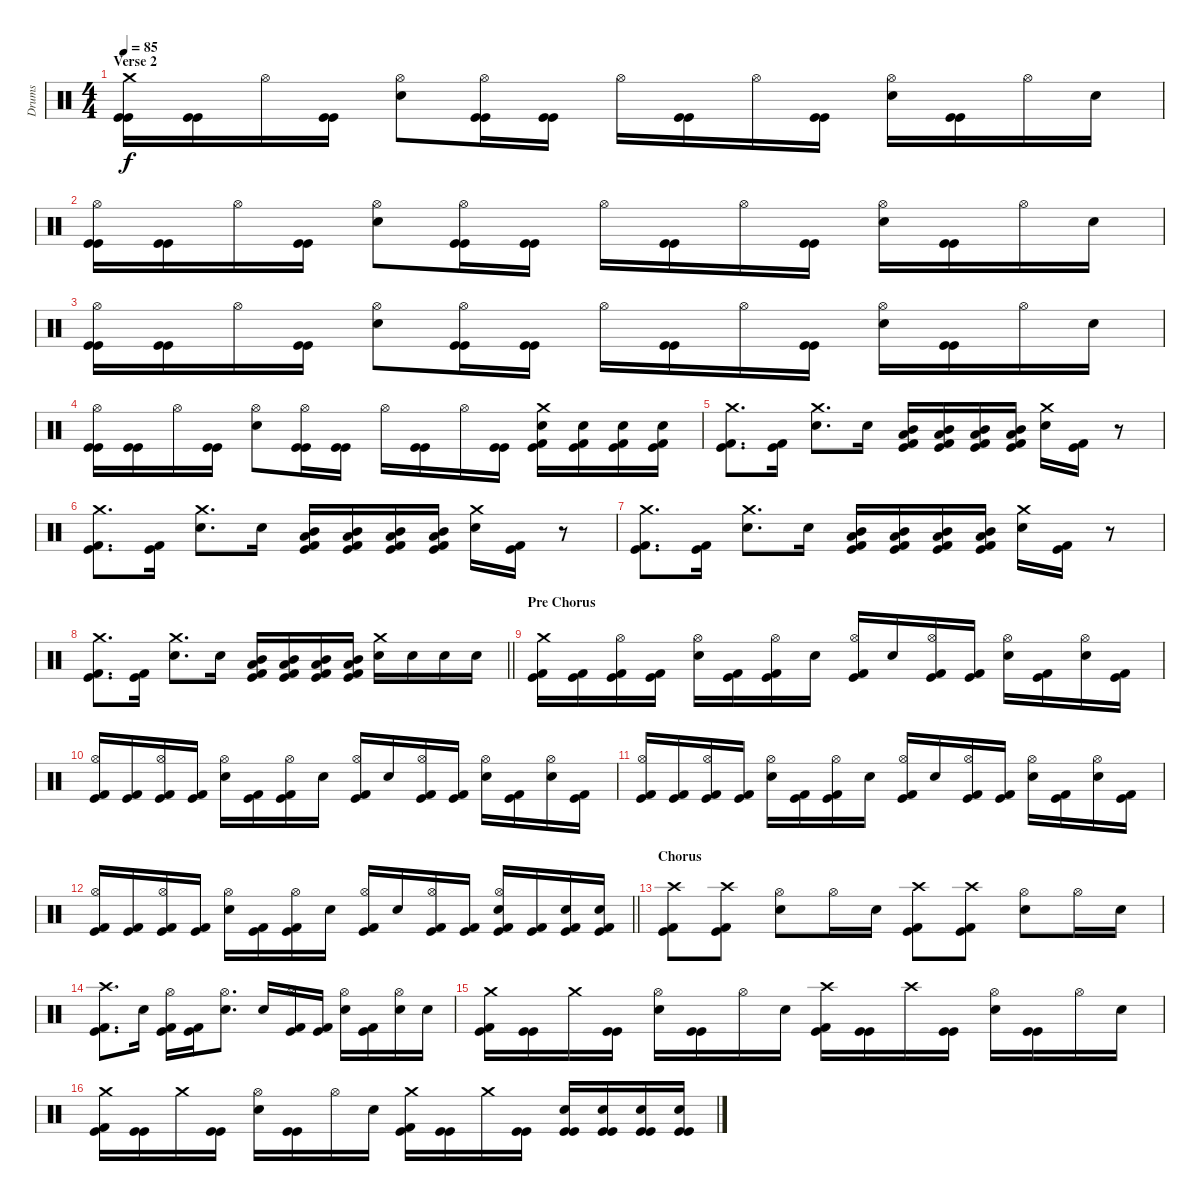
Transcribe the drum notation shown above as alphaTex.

\track ("Drums" "Drums") {instrument percussion}
\staff {score}
\articulation defaults
\ts (4 4)
\section ("" "Verse 2")
\tempo 85
\clef neutral
\ks c
("Crash medium (hit)" "Kick (hit)" "Kick (hit)").16{dy f} ("Kick (hit)" "Kick (hit)").16 "Hi-Hat (open)".16 ("Kick (hit)" "Kick (hit)").16 ("Electric Snare (hit)" "Hi-Hat (open)").8 ("Hi-Hat (open)" "Kick (hit)" "Kick (hit)").16 ("Kick (hit)" "Kick (hit)").16 "Hi-Hat (open)".16 ("Kick (hit)" "Kick (hit)").16 "Hi-Hat (open)".16 ("Kick (hit)" "Kick (hit)").16 ("Electric Snare (hit)" "Hi-Hat (open)").16 ("Kick (hit)" "Kick (hit)").16 "Hi-Hat (open)".16 "Electric Snare (hit)".16 |
("Hi-Hat (open)" "Kick (hit)" "Kick (hit)").16 ("Kick (hit)" "Kick (hit)").16 "Hi-Hat (open)".16 ("Kick (hit)" "Kick (hit)").16 ("Electric Snare (hit)" "Hi-Hat (open)").8 ("Hi-Hat (open)" "Kick (hit)" "Kick (hit)").16 ("Kick (hit)" "Kick (hit)").16 "Hi-Hat (open)".16 ("Kick (hit)" "Kick (hit)").16 "Hi-Hat (open)".16 ("Kick (hit)" "Kick (hit)").16 ("Electric Snare (hit)" "Hi-Hat (open)").16 ("Kick (hit)" "Kick (hit)").16 "Hi-Hat (open)".16 "Electric Snare (hit)".16 |
("Hi-Hat (open)" "Kick (hit)" "Kick (hit)").16 ("Kick (hit)" "Kick (hit)").16 "Hi-Hat (open)".16 ("Kick (hit)" "Kick (hit)").16 ("Electric Snare (hit)" "Hi-Hat (open)").8 ("Hi-Hat (open)" "Kick (hit)" "Kick (hit)").16 ("Kick (hit)" "Kick (hit)").16 "Hi-Hat (open)".16 ("Kick (hit)" "Kick (hit)").16 "Hi-Hat (open)".16 ("Kick (hit)" "Kick (hit)").16 ("Electric Snare (hit)" "Hi-Hat (open)").16 ("Kick (hit)" "Kick (hit)").16 "Hi-Hat (open)".16 "Electric Snare (hit)".16 |
("Hi-Hat (open)" "Kick (hit)" "Kick (hit)").16 ("Kick (hit)" "Kick (hit)").16 "Hi-Hat (open)".16 ("Kick (hit)" "Kick (hit)").16 ("Electric Snare (hit)" "Hi-Hat (open)").8 ("Hi-Hat (open)" "Kick (hit)" "Kick (hit)").16 ("Kick (hit)" "Kick (hit)").16 "Hi-Hat (open)".16 ("Kick (hit)" "Kick (hit)").16 "Hi-Hat (open)".16 ("Kick (hit)" "Kick (hit)").16 ("Electric Snare (hit)" "Crash medium (hit)" "Kick (hit) 2" "Kick (hit)").16 ("Electric Snare (hit)" "Kick (hit) 2" "Kick (hit)").16 ("Electric Snare (hit)" "Kick (hit) 2" "Kick (hit)").16 ("Electric Snare (hit)" "Kick (hit) 2" "Kick (hit)").16 |
("Crash medium (hit)" "Kick (hit) 2" "Kick (hit)").8{d} ("Kick (hit)" "Kick (hit) 2").16 ("Electric Snare (hit)" "Crash medium (hit)").8{d} "Electric Snare (hit)".16 ("Mid Tom (hit)" "Low Tom (hit)" "Kick (hit) 2" "Kick (hit)").16 ("Mid Tom (hit)" "Low Tom (hit)" "Kick (hit) 2" "Kick (hit)").16 ("Mid Tom (hit)" "Low Tom (hit)" "Kick (hit) 2" "Kick (hit)").16 ("Mid Tom (hit)" "Low Tom (hit)" "Kick (hit) 2" "Kick (hit)").16 ("Electric Snare (hit)" "Crash medium (hit)").16 ("Kick (hit)" "Kick (hit) 2").16 r.8 |
("Crash medium (hit)" "Kick (hit) 2" "Kick (hit)").8{d} ("Kick (hit)" "Kick (hit) 2").16 ("Electric Snare (hit)" "Crash medium (hit)").8{d} "Electric Snare (hit)".16 ("Mid Tom (hit)" "Low Tom (hit)" "Kick (hit) 2" "Kick (hit)").16 ("Mid Tom (hit)" "Low Tom (hit)" "Kick (hit) 2" "Kick (hit)").16 ("Mid Tom (hit)" "Low Tom (hit)" "Kick (hit) 2" "Kick (hit)").16 ("Mid Tom (hit)" "Low Tom (hit)" "Kick (hit) 2" "Kick (hit)").16 ("Electric Snare (hit)" "Crash medium (hit)").16 ("Kick (hit)" "Kick (hit) 2").16 r.8 |
("Crash medium (hit)" "Kick (hit) 2" "Kick (hit)").8{d} ("Kick (hit)" "Kick (hit) 2").16 ("Electric Snare (hit)" "Crash medium (hit)").8{d} "Electric Snare (hit)".16 ("Mid Tom (hit)" "Low Tom (hit)" "Kick (hit) 2" "Kick (hit)").16 ("Mid Tom (hit)" "Low Tom (hit)" "Kick (hit) 2" "Kick (hit)").16 ("Mid Tom (hit)" "Low Tom (hit)" "Kick (hit) 2" "Kick (hit)").16 ("Mid Tom (hit)" "Low Tom (hit)" "Kick (hit) 2" "Kick (hit)").16 ("Electric Snare (hit)" "Crash medium (hit)").16 ("Kick (hit)" "Kick (hit) 2").16 r.8 |
\barLineRight lightlight
("Crash medium (hit)" "Kick (hit) 2" "Kick (hit)").8{d} ("Kick (hit)" "Kick (hit) 2").16 ("Electric Snare (hit)" "Crash medium (hit)").8{d} "Electric Snare (hit)".16 ("Mid Tom (hit)" "Low Tom (hit)" "Kick (hit) 2" "Kick (hit)").16 ("Mid Tom (hit)" "Low Tom (hit)" "Kick (hit) 2" "Kick (hit)").16 ("Mid Tom (hit)" "Low Tom (hit)" "Kick (hit) 2" "Kick (hit)").16 ("Mid Tom (hit)" "Low Tom (hit)" "Kick (hit) 2" "Kick (hit)").16 ("Electric Snare (hit)" "Crash medium (hit)").16 "Electric Snare (hit)".16 "Electric Snare (hit)".16 "Electric Snare (hit)".16 |
\section ("" "Pre Chorus")
("Crash medium (hit)" "Kick (hit) 2" "Kick (hit)").16 ("Kick (hit) 2" "Kick (hit)").16 ("Hi-Hat (open)" "Kick (hit) 2" "Kick (hit)").16 ("Kick (hit) 2" "Kick (hit)").16 ("Electric Snare (hit)" "Hi-Hat (open)").16 ("Kick (hit) 2" "Kick (hit)").16 ("Hi-Hat (open)" "Kick (hit) 2" "Kick (hit)").16 "Electric Snare (hit)".16 ("Hi-Hat (open)" "Kick (hit) 2" "Kick (hit)").16 "Electric Snare (hit)".16 ("Hi-Hat (open)" "Kick (hit) 2" "Kick (hit)").16 ("Kick (hit) 2" "Kick (hit)").16 ("Electric Snare (hit)" "Hi-Hat (open)").16 ("Kick (hit) 2" "Kick (hit)").16 ("Electric Snare (hit)" "Hi-Hat (open)").16 ("Kick (hit) 2" "Kick (hit)").16 |
("Hi-Hat (open)" "Kick (hit) 2" "Kick (hit)").16 ("Kick (hit) 2" "Kick (hit)").16 ("Hi-Hat (open)" "Kick (hit) 2" "Kick (hit)").16 ("Kick (hit) 2" "Kick (hit)").16 ("Electric Snare (hit)" "Hi-Hat (open)").16 ("Kick (hit) 2" "Kick (hit)").16 ("Hi-Hat (open)" "Kick (hit) 2" "Kick (hit)").16 "Electric Snare (hit)".16 ("Hi-Hat (open)" "Kick (hit) 2" "Kick (hit)").16 "Electric Snare (hit)".16 ("Hi-Hat (open)" "Kick (hit) 2" "Kick (hit)").16 ("Kick (hit) 2" "Kick (hit)").16 ("Electric Snare (hit)" "Hi-Hat (open)").16 ("Kick (hit) 2" "Kick (hit)").16 ("Electric Snare (hit)" "Hi-Hat (open)").16 ("Kick (hit) 2" "Kick (hit)").16 |
("Hi-Hat (open)" "Kick (hit) 2" "Kick (hit)").16 ("Kick (hit) 2" "Kick (hit)").16 ("Hi-Hat (open)" "Kick (hit) 2" "Kick (hit)").16 ("Kick (hit) 2" "Kick (hit)").16 ("Electric Snare (hit)" "Hi-Hat (open)").16 ("Kick (hit) 2" "Kick (hit)").16 ("Hi-Hat (open)" "Kick (hit) 2" "Kick (hit)").16 "Electric Snare (hit)".16 ("Hi-Hat (open)" "Kick (hit) 2" "Kick (hit)").16 "Electric Snare (hit)".16 ("Hi-Hat (open)" "Kick (hit) 2" "Kick (hit)").16 ("Kick (hit) 2" "Kick (hit)").16 ("Electric Snare (hit)" "Hi-Hat (open)").16 ("Kick (hit) 2" "Kick (hit)").16 ("Electric Snare (hit)" "Hi-Hat (open)").16 ("Kick (hit) 2" "Kick (hit)").16 |
\barLineRight lightlight
("Hi-Hat (open)" "Kick (hit) 2" "Kick (hit)").16 ("Kick (hit) 2" "Kick (hit)").16 ("Hi-Hat (open)" "Kick (hit) 2" "Kick (hit)").16 ("Kick (hit) 2" "Kick (hit)").16 ("Electric Snare (hit)" "Hi-Hat (open)").16 ("Kick (hit) 2" "Kick (hit)").16 ("Hi-Hat (open)" "Kick (hit) 2" "Kick (hit)").16 "Electric Snare (hit)".16 ("Hi-Hat (open)" "Kick (hit) 2" "Kick (hit)").16 "Electric Snare (hit)".16 ("Hi-Hat (open)" "Kick (hit) 2" "Kick (hit)").16 ("Kick (hit) 2" "Kick (hit)").16 ("Electric Snare (hit)" "Hi-Hat (open)" "Kick (hit)" "Kick (hit) 2").16 ("Kick (hit)" "Kick (hit) 2").16 ("Electric Snare (hit)" "Kick (hit)" "Kick (hit) 2").16 ("Electric Snare (hit)" "Kick (hit)" "Kick (hit) 2").16 |
\section ("" "Chorus")
("Crash high (hit)" "Kick (hit)" "Kick (hit) 2").8 ("Crash high (hit)" "Kick (hit)" "Kick (hit) 2").8 ("Electric Snare (hit)" "Hi-Hat (open)").8 "Hi-Hat (open)".16 "Electric Snare (hit)".16 ("Crash high (hit)" "Kick (hit)" "Kick (hit) 2").8 ("Crash high (hit)" "Kick (hit)" "Kick (hit) 2").8 ("Electric Snare (hit)" "Hi-Hat (open)").8 "Hi-Hat (open)".16 "Electric Snare (hit)".16 |
("Crash high (hit)" "Kick (hit)" "Kick (hit) 2").8{d} "Electric Snare (hit)".16 ("Hi-Hat (open)" "Kick (hit)" "Kick (hit) 2").16 ("Kick (hit)" "Kick (hit) 2").16 ("Electric Snare (hit)" "Hi-Hat (open)").8{d} "Electric Snare (hit)".16 ("Hi-Hat (open)" "Kick (hit)" "Kick (hit) 2").16 ("Kick (hit)" "Kick (hit) 2").16 ("Electric Snare (hit)" "Hi-Hat (open)").16 ("Kick (hit)" "Kick (hit) 2").16 ("Electric Snare (hit)" "Hi-Hat (open)").16 "Electric Snare (hit)".16 |
("Crash medium (hit)" "Kick (hit) 2" "Kick (hit)").16 ("Kick (hit)" "Kick (hit)").16 "Crash medium (hit)".16 ("Kick (hit)" "Kick (hit)").16 ("Electric Snare (hit)" "Hi-Hat (open)").16 ("Kick (hit)" "Kick (hit)").16 "Hi-Hat (open)".16 "Electric Snare (hit)".16 ("Crash high (hit)" "Kick (hit) 2" "Kick (hit)").16 ("Kick (hit)" "Kick (hit)").16 "Crash high (hit)".16 ("Kick (hit)" "Kick (hit)").16 ("Electric Snare (hit)" "Hi-Hat (open)").16 ("Kick (hit)" "Kick (hit)").16 "Hi-Hat (open)".16 "Electric Snare (hit)".16 |
("Crash medium (hit)" "Kick (hit) 2" "Kick (hit)").16 ("Kick (hit)" "Kick (hit)").16 "Crash medium (hit)".16 ("Kick (hit)" "Kick (hit)").16 ("Electric Snare (hit)" "Hi-Hat (open)").16 ("Kick (hit)" "Kick (hit)").16 "Hi-Hat (open)".16 "Electric Snare (hit)".16 ("Crash medium (hit)" "Kick (hit) 2" "Kick (hit)").16 ("Kick (hit)" "Kick (hit)").16 "Crash medium (hit)".16 ("Kick (hit)" "Kick (hit)").16 ("Electric Snare (hit)" "Kick (hit)" "Kick (hit)").16 ("Electric Snare (hit)" "Kick (hit)" "Kick (hit)").16 ("Electric Snare (hit)" "Kick (hit)" "Kick (hit)").16 ("Electric Snare (hit)" "Kick (hit)" "Kick (hit)").16
